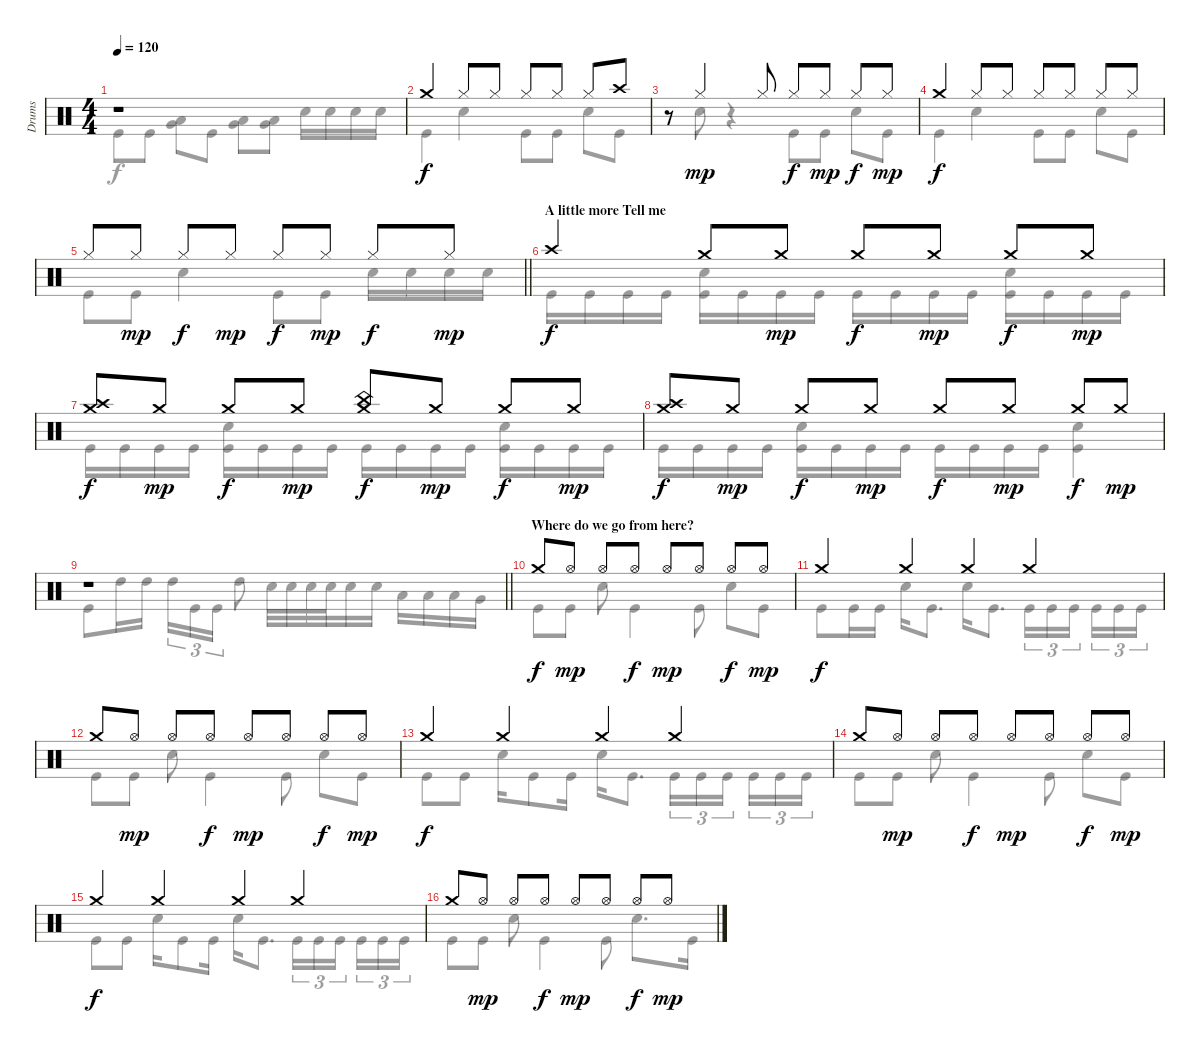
\track ("Drums" "Drums") {instrument percussion}
\staff {score}
\articulation defaults
\voice
\ts (4 4)
\tempo 120
\clef neutral
\ks c
r.1{dy f} |
"Crash medium (hit)".4 "Hi-Hat (closed)".8 "Hi-Hat (closed)".8 "Hi-Hat (closed)".8 "Hi-Hat (closed)".8 "Hi-Hat (closed)".8 "Crash high (hit)".8 |
r.8 "Hi-Hat (closed)".4{dy mp} "Hi-Hat (closed)".8 "Hi-Hat (closed)".8{dy f} "Hi-Hat (closed)".8{dy mp} "Hi-Hat (closed)".8{dy f} "Hi-Hat (closed)".8{dy mp} |
"Crash medium (hit)".4{dy f} "Hi-Hat (closed)".8 "Hi-Hat (closed)".8 "Hi-Hat (closed)".8 "Hi-Hat (closed)".8 "Hi-Hat (closed)".8 "Hi-Hat (closed)".8 |
\barLineRight lightlight "Hi-Hat (closed)".8 "Hi-Hat (closed)".8{dy mp} "Hi-Hat (closed)".8{dy f} "Hi-Hat (closed)".8{dy mp} "Hi-Hat (closed)".8{dy f} "Hi-Hat (closed)".8{dy mp} "Hi-Hat (closed)".8{dy f} "Hi-Hat (closed)".8{dy mp}
|
\section ("" "A little more Tell me")
"Crash high (hit)".4{dy f} "Crash medium (hit)".8 "Crash medium (hit)".8{dy mp} "Crash medium (hit)".8{dy f} "Crash medium (hit)".8{dy mp} "Crash medium (hit)".8{dy f} "Crash medium (hit)".8{dy mp} |
("Crash medium (hit)" "Crash high (hit)").8{dy f} "Crash medium (hit)".8{dy mp} "Crash medium (hit)".8{dy f} "Crash medium (hit)".8{dy mp} ("Crash medium (hit)" "China (hit)").8{dy f} "Crash medium (hit)".8{dy mp} "Crash medium (hit)".8{dy f} "Crash medium (hit)".8{dy mp} |
("Crash medium (hit)" "Crash high (hit)").8{dy f} "Crash medium (hit)".8{dy mp} "Crash medium (hit)".8{dy f} "Crash medium (hit)".8{dy mp} "Crash medium (hit)".8{dy f} "Crash medium (hit)".8{dy mp} "Crash medium (hit)".8{dy f} "Crash medium (hit)".8{dy mp} |
\barLineRight lightlight
r.1 |
\section ("" "Where do we go from here?")
"Crash medium (hit)".8{dy f} "Hi-Hat (open)".8{dy mp} "Hi-Hat (open)".8 "Hi-Hat (open)".8{dy f} "Hi-Hat (open)".8{dy mp} "Hi-Hat (open)".8 "Hi-Hat (open)".8{dy f} "Hi-Hat (open)".8{dy mp} |
"Crash medium (hit)".4{dy f} "Crash medium (hit)".4 "Crash medium (hit)".4 "Crash medium (hit)".4 |
"Crash medium (hit)".8 "Hi-Hat (open)".8{dy mp} "Hi-Hat (open)".8 "Hi-Hat (open)".8{dy f} "Hi-Hat (open)".8{dy mp} "Hi-Hat (open)".8 "Hi-Hat (open)".8{dy f} "Hi-Hat (open)".8{dy mp} |
"Crash medium (hit)".4{dy f} "Crash medium (hit)".4 "Crash medium (hit)".4 "Crash medium (hit)".4 |
"Crash medium (hit)".8 "Hi-Hat (open)".8{dy mp} "Hi-Hat (open)".8 "Hi-Hat (open)".8{dy f} "Hi-Hat (open)".8{dy mp} "Hi-Hat (open)".8 "Hi-Hat (open)".8{dy f} "Hi-Hat (open)".8{dy mp} |
"Crash medium (hit)".4{dy f} "Crash medium (hit)".4 "Crash medium (hit)".4 "Crash medium (hit)".4 |
"Crash medium (hit)".8 "Hi-Hat (open)".8{dy mp} "Hi-Hat (open)".8 "Hi-Hat (open)".8{dy f} "Hi-Hat (open)".8{dy mp} "Hi-Hat (open)".8 "Hi-Hat (open)".8{dy f} "Hi-Hat (open)".8{dy mp}
\voice
\clef neutral
\ottava regular
\simile none
\ks c "Kick (hit)".8{dy f} "Kick (hit)".8
("Low Tom (hit)" "Very Low Tom (hit)").8 "Kick (hit)".8 ("Very Low Tom (hit)" "Low Floor Tom (hit)").8 ("Very Low Tom (hit)" "Low Floor Tom (hit)").8 "Snare (hit) 2".16 "Snare (hit) 2".16 "Snare (hit) 2".16 "Snare (hit) 2".16 |
"Kick (hit)".4 "Snare (hit) 2".4 "Kick (hit)".8 "Kick (hit)".8 "Snare (hit) 2".8 "Kick (hit)".8 |
r.8 "Snare (hit) 2".8 r.4 "Kick (hit)".8 "Kick (hit)".8 "Snare (hit) 2".8 "Kick (hit)".8 |
"Kick (hit)".4 "Snare (hit) 2".4 "Kick (hit)".8 "Kick (hit)".8 "Snare (hit) 2".8 "Kick (hit)".8 |
\barLineRight lightlight "Kick (hit)".8 "Kick (hit)".8 "Snare (hit) 2".4 "Kick (hit)".8 "Kick (hit)".8 "Snare (hit) 2".16 "Snare (hit) 2".16 "Snare (hit) 2".16 "Snare (hit) 2".16
|
"Kick (hit)".16 "Kick (hit)".16 "Kick (hit)".16 "Kick (hit)".16 ("Snare (hit) 2" "Kick (hit)").16 "Kick (hit)".16 "Kick (hit)".16 "Kick (hit)".16 "Kick (hit)".16 "Kick (hit)".16 "Kick (hit)".16 "Kick (hit)".16 ("Snare (hit) 2" "Kick (hit)").16 "Kick (hit)".16 "Kick (hit)".16 "Kick (hit)".16 |
"Kick (hit)".16 "Kick (hit)".16 "Kick (hit)".16 "Kick (hit)".16 ("Snare (hit) 2" "Kick (hit)").16 "Kick (hit)".16 "Kick (hit)".16 "Kick (hit)".16 "Kick (hit)".16 "Kick (hit)".16 "Kick (hit)".16 "Kick (hit)".16 ("Snare (hit) 2" "Kick (hit)").16 "Kick (hit)".16 "Kick (hit)".16 "Kick (hit)".16 |
"Kick (hit)".16 "Kick (hit)".16 "Kick (hit)".16 "Kick (hit)".16 ("Snare (hit) 2" "Kick (hit)").16 "Kick (hit)".16 "Kick (hit)".16 "Kick (hit)".16 "Kick (hit)".16 "Kick (hit)".16 "Kick (hit)".16 "Kick (hit)".16 ("Snare (hit) 2" "Kick (hit)").4 |
\barLineRight lightlight "Kick (hit)".8 "High Tom (hit)".16 "High Tom (hit)".16 "High Tom (hit)".16{tu (3 2)} "Kick (hit)".16{tu (3 2)} "Kick (hit)".16{tu (3 2)} "High Tom (hit)".8 "Snare (hit) 2".32 "Snare (hit) 2".32 "Snare (hit) 2".32 "Snare (hit) 2".32 "Snare (hit) 2".16 "Snare (hit) 2".16 "Low Tom (hit)".16 "Low Tom (hit)".16 "Low Floor Tom (hit)".16 "Very Low Tom (hit)".16
|
"Kick (hit)".8 "Kick (hit)".8 "Snare (hit) 2".8 "Kick (hit)".4 "Kick (hit)".8 "Snare (hit) 2".8 "Kick (hit)".8 |
"Kick (hit)".8 "Kick (hit)".16 "Kick (hit)".16 "Snare (hit) 2".16 "Kick (hit)".8{d} "Snare (hit) 2".16 "Kick (hit)".8{d} "Kick (hit)".16{tu (3 2)} "Kick (hit)".16{tu (3 2)} "Kick (hit)".16{tu (3 2) beam splitsecondary} "Kick (hit)".16{tu (3 2)} "Kick (hit)".16{tu (3 2)} "Kick (hit)".16{tu (3 2)} |
"Kick (hit)".8 "Kick (hit)".8 "Snare (hit) 2".8 "Kick (hit)".4 "Kick (hit)".8 "Snare (hit) 2".8 "Kick (hit)".8 |
"Kick (hit)".8 "Kick (hit)".8 "Snare (hit) 2".16 "Kick (hit)".8 "Kick (hit)".16 "Snare (hit) 2".16 "Kick (hit)".8{d} "Kick (hit)".16{tu (3 2)} "Kick (hit)".16{tu (3 2)} "Kick (hit)".16{tu (3 2) beam splitsecondary} "Kick (hit)".16{tu (3 2)} "Kick (hit)".16{tu (3 2)} "Kick (hit)".16{tu (3 2)} |
"Kick (hit)".8 "Kick (hit)".8 "Snare (hit) 2".8 "Kick (hit)".4 "Kick (hit)".8 "Snare (hit) 2".8 "Kick (hit)".8 |
"Kick (hit)".8 "Kick (hit)".8 "Snare (hit) 2".16 "Kick (hit)".8 "Kick (hit)".16 "Snare (hit) 2".16 "Kick (hit)".8{d} "Kick (hit)".16{tu (3 2)} "Kick (hit)".16{tu (3 2)} "Kick (hit)".16{tu (3 2) beam splitsecondary} "Kick (hit)".16{tu (3 2)} "Kick (hit)".16{tu (3 2)} "Kick (hit)".16{tu (3 2)} |
"Kick (hit)".8 "Kick (hit)".8 "Snare (hit) 2".8 "Kick (hit)".4 "Kick (hit)".8 "Snare (hit) 2".8{d} "Kick (hit)".16
